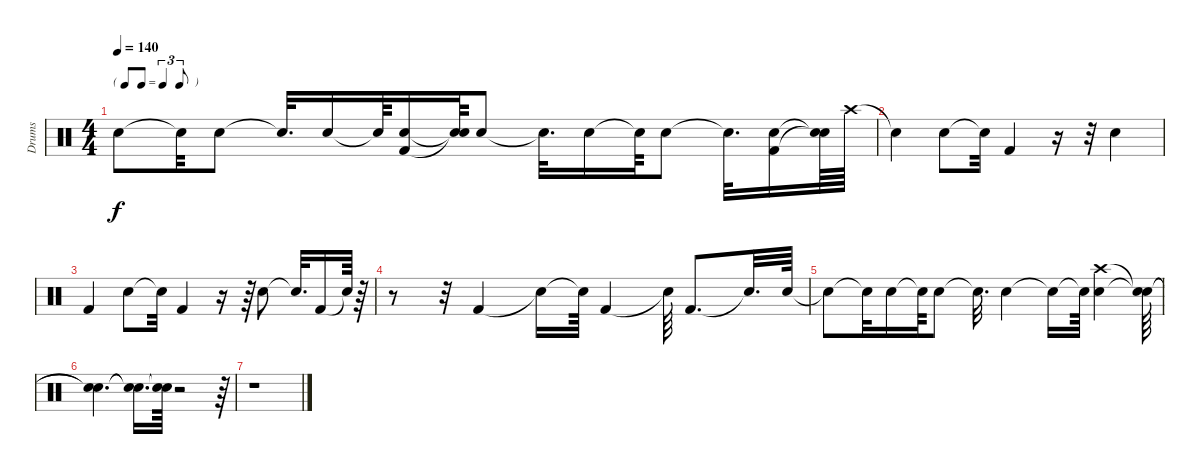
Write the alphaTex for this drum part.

\track ("Drums" "Drums") {instrument percussion}
\staff {score}
\articulation defaults
\ts (4 4)
\tf triplet8th
\tempo 140
\clef neutral
\ks c "Snare (hit)"{t}.8{dy f} "Snare (hit)"{t}.32 "Snare (hit) 2".8 "Snare (hit)"{t}.32{d} "Snare (hit) 2".16 "Snare (hit)"{t}.64
("Kick (hit) 2" "Snare (hit) 2").16 ("Snare (hit)"{t} "Snare (hit)"{t}).64 "Snare (hit) 2".8 "Snare (hit)"{t}.32{d} "Snare (hit) 2".16 "Snare (hit)"{t}.64 "Snare (hit) 2".8 "Snare (hit)"{t}.32{d} ("Kick (hit) 2" "Snare (hit) 2").16 ("Snare (hit)"{t} "Snare (hit)"{t}).64 "Crash high (hit)".64 |
"Snare (hit)"{t}.4 "Snare (hit) 2".8 "Snare (hit)"{t}.32 "Kick (hit) 2".4 r.16 r.32 "Snare (hit) 2".4 |
"Kick (hit) 2".4 "Snare (hit) 2".8 "Snare (hit)"{t}.32 "Kick (hit) 2".4 r.16 r.64 "Snare (hit) 2".8 "Snare (hit)"{t}.32{d} "Kick (hit) 2".16 "Snare (hit)"{t}.64 r.64 |
r.8 r.32 "Kick (hit) 2".4 "Snare (hit)"{t}.16 "Snare (hit)"{t}.64 "Kick (hit) 2".4 "Snare (hit)"{t}.64 "Kick (hit) 2".8{d} "Snare (hit)"{t}.32{d} "Snare (hit) 2".64 |
"Snare (hit)"{t}.8 "Snare (hit)"{t}.32 "Snare (hit) 2".16 "Snare (hit)"{t}.64 "Snare (hit) 2".8 "Snare (hit)"{t}.32{d} "Snare (hit) 2".4 "Snare (hit)"{t}.16 "Snare (hit)"{t}.64 ("Snare (hit) 2" "Crash high (hit)").4 ("Snare (hit)"{t} "Snare (hit)"{t}).64 |
("Snare (hit)"{t} "Snare (hit)"{t}).4{d} ("Snare (hit)"{t} "Snare (hit)"{t}).16{d} ("Snare (hit)"{t} "Snare (hit)"{t}).64 r.2 r.64 |
r.1
